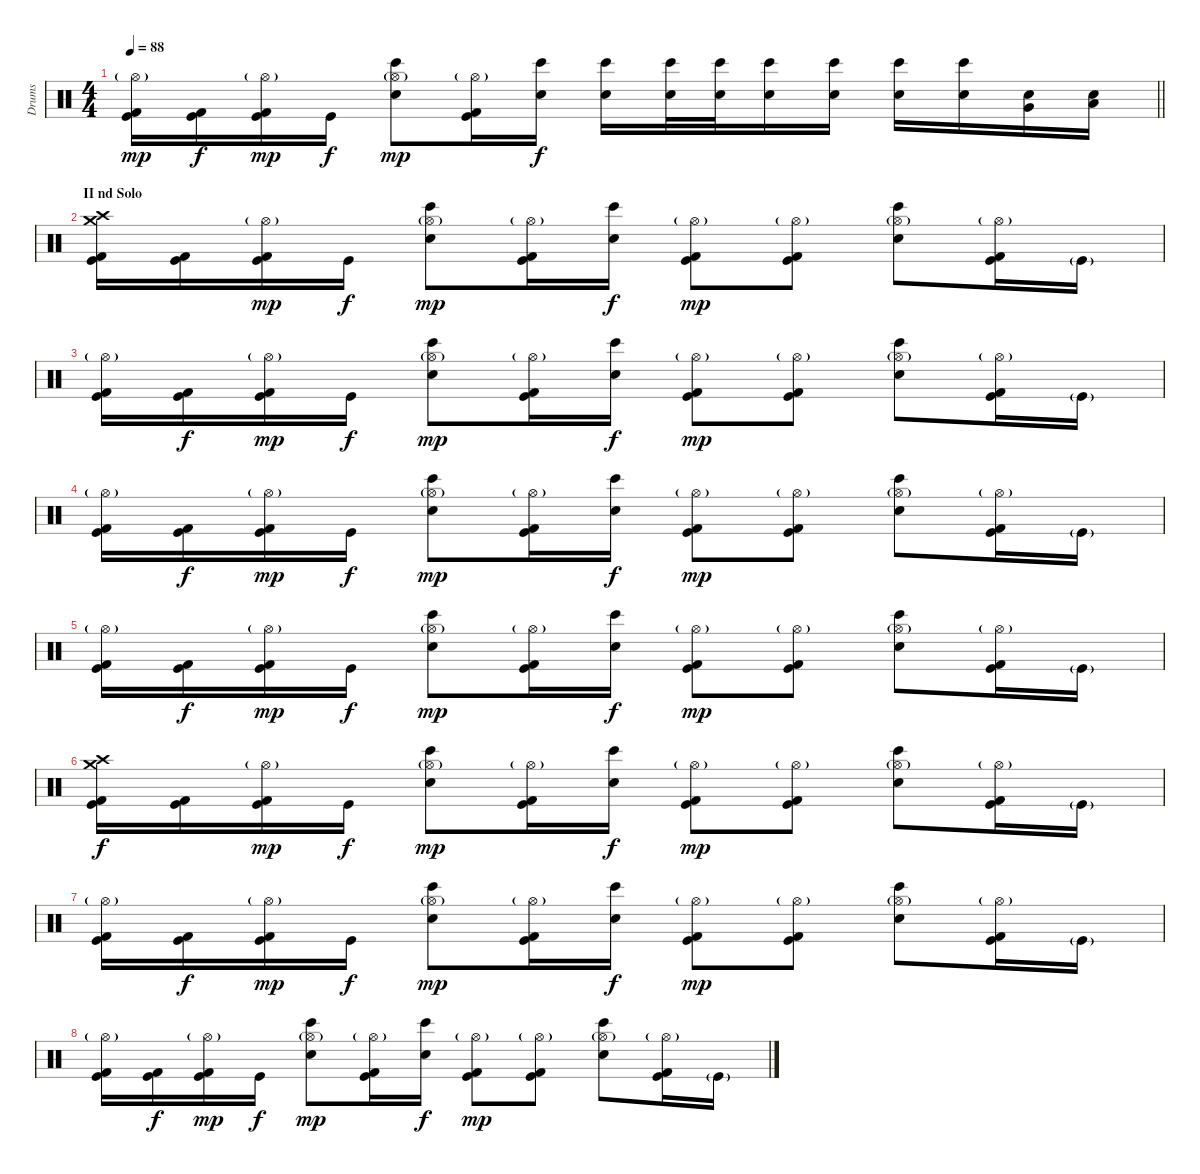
\track ("Drums" "Drums") {instrument percussion}
\staff {score}
\articulation defaults
\ts (4 4)
\tempo 88
\clef neutral
\barLineRight lightlight
\ks c
("Hi-Hat (open)"{g} "Kick (hit) 2" "Kick (hit)").16{dy mp} ("Kick (hit) 2" "Kick (hit)").16{dy f} ("Hi-Hat (open)"{g} "Kick (hit) 2" "Kick (hit)").16{dy mp} "Kick (hit)".16{dy f} ("Hi-Hat (open)"{g} "Bongo High (hit)" "Snare (hit) 2").8{dy mp} ("Hi-Hat (open)"{g} "Kick (hit) 2" "Kick (hit)").16 ("Bongo High (hit)" "Snare (hit) 2").16{dy f} ("Bongo High (hit)" "Snare (hit) 2").16 ("Bongo High (hit)" "Snare (hit) 2").32 ("Bongo High (hit)" "Snare (hit) 2").32 ("Bongo High (hit)" "Snare (hit) 2").16 ("Bongo High (hit)" "Snare (hit) 2").16 ("Bongo High (hit)" "Snare (hit) 2").16 ("Bongo High (hit)" "Snare (hit) 2").16 ("Snare (hit) 2" "Very Low Tom (hit)").16 ("Snare (hit) 2" "Low Floor Tom (hit)").16 |
\section ("" "II nd Solo")
("Crash medium (hit)" "Crash high (hit)" "Kick (hit) 2" "Kick (hit)").16 ("Kick (hit) 2" "Kick (hit)").16 ("Hi-Hat (open)"{g} "Kick (hit) 2" "Kick (hit)").16{dy mp} "Kick (hit)".16{dy f} ("Hi-Hat (open)"{g} "Bongo High (hit)" "Snare (hit) 2").8{dy mp} ("Hi-Hat (open)"{g} "Kick (hit) 2" "Kick (hit)").16 ("Bongo High (hit)" "Snare (hit) 2").16{dy f} ("Hi-Hat (open)"{g} "Kick (hit) 2" "Kick (hit)").8{dy mp} ("Hi-Hat (open)"{g} "Kick (hit) 2" "Kick (hit)").8 ("Hi-Hat (open)"{g} "Bongo High (hit)" "Snare (hit) 2").8 ("Hi-Hat (open)"{g} "Kick (hit) 2" "Kick (hit)").16 "Kick (hit)"{g}.16 |
("Hi-Hat (open)"{g} "Kick (hit) 2" "Kick (hit)").16 ("Kick (hit) 2" "Kick (hit)").16{dy f} ("Hi-Hat (open)"{g} "Kick (hit) 2" "Kick (hit)").16{dy mp} "Kick (hit)".16{dy f} ("Hi-Hat (open)"{g} "Bongo High (hit)" "Snare (hit) 2").8{dy mp} ("Hi-Hat (open)"{g} "Kick (hit) 2" "Kick (hit)").16 ("Bongo High (hit)" "Snare (hit) 2").16{dy f} ("Hi-Hat (open)"{g} "Kick (hit) 2" "Kick (hit)").8{dy mp} ("Hi-Hat (open)"{g} "Kick (hit) 2" "Kick (hit)").8 ("Hi-Hat (open)"{g} "Bongo High (hit)" "Snare (hit) 2").8 ("Hi-Hat (open)"{g} "Kick (hit) 2" "Kick (hit)").16 "Kick (hit)"{g}.16 |
("Hi-Hat (open)"{g} "Kick (hit) 2" "Kick (hit)").16 ("Kick (hit) 2" "Kick (hit)").16{dy f} ("Hi-Hat (open)"{g} "Kick (hit) 2" "Kick (hit)").16{dy mp} "Kick (hit)".16{dy f} ("Hi-Hat (open)"{g} "Bongo High (hit)" "Snare (hit) 2").8{dy mp} ("Hi-Hat (open)"{g} "Kick (hit) 2" "Kick (hit)").16 ("Bongo High (hit)" "Snare (hit) 2").16{dy f} ("Hi-Hat (open)"{g} "Kick (hit) 2" "Kick (hit)").8{dy mp} ("Hi-Hat (open)"{g} "Kick (hit) 2" "Kick (hit)").8 ("Hi-Hat (open)"{g} "Bongo High (hit)" "Snare (hit) 2").8 ("Hi-Hat (open)"{g} "Kick (hit) 2" "Kick (hit)").16 "Kick (hit)"{g}.16 |
("Hi-Hat (open)"{g} "Kick (hit) 2" "Kick (hit)").16 ("Kick (hit) 2" "Kick (hit)").16{dy f} ("Hi-Hat (open)"{g} "Kick (hit) 2" "Kick (hit)").16{dy mp} "Kick (hit)".16{dy f} ("Hi-Hat (open)"{g} "Bongo High (hit)" "Snare (hit) 2").8{dy mp} ("Hi-Hat (open)"{g} "Kick (hit) 2" "Kick (hit)").16 ("Bongo High (hit)" "Snare (hit) 2").16{dy f} ("Hi-Hat (open)"{g} "Kick (hit) 2" "Kick (hit)").8{dy mp} ("Hi-Hat (open)"{g} "Kick (hit) 2" "Kick (hit)").8 ("Hi-Hat (open)"{g} "Bongo High (hit)" "Snare (hit) 2").8 ("Hi-Hat (open)"{g} "Kick (hit) 2" "Kick (hit)").16 "Kick (hit)"{g}.16 |
("Crash medium (hit)" "Crash high (hit)" "Kick (hit) 2" "Kick (hit)").16{dy f} ("Kick (hit) 2" "Kick (hit)").16 ("Hi-Hat (open)"{g} "Kick (hit) 2" "Kick (hit)").16{dy mp} "Kick (hit)".16{dy f} ("Hi-Hat (open)"{g} "Bongo High (hit)" "Snare (hit) 2").8{dy mp} ("Hi-Hat (open)"{g} "Kick (hit) 2" "Kick (hit)").16 ("Bongo High (hit)" "Snare (hit) 2").16{dy f} ("Hi-Hat (open)"{g} "Kick (hit) 2" "Kick (hit)").8{dy mp} ("Hi-Hat (open)"{g} "Kick (hit) 2" "Kick (hit)").8 ("Hi-Hat (open)"{g} "Bongo High (hit)" "Snare (hit) 2").8 ("Hi-Hat (open)"{g} "Kick (hit) 2" "Kick (hit)").16 "Kick (hit)"{g}.16 |
("Hi-Hat (open)"{g} "Kick (hit) 2" "Kick (hit)").16 ("Kick (hit) 2" "Kick (hit)").16{dy f} ("Hi-Hat (open)"{g} "Kick (hit) 2" "Kick (hit)").16{dy mp} "Kick (hit)".16{dy f} ("Hi-Hat (open)"{g} "Bongo High (hit)" "Snare (hit) 2").8{dy mp} ("Hi-Hat (open)"{g} "Kick (hit) 2" "Kick (hit)").16 ("Bongo High (hit)" "Snare (hit) 2").16{dy f} ("Hi-Hat (open)"{g} "Kick (hit) 2" "Kick (hit)").8{dy mp} ("Hi-Hat (open)"{g} "Kick (hit) 2" "Kick (hit)").8 ("Hi-Hat (open)"{g} "Bongo High (hit)" "Snare (hit) 2").8 ("Hi-Hat (open)"{g} "Kick (hit) 2" "Kick (hit)").16 "Kick (hit)"{g}.16 |
("Hi-Hat (open)"{g} "Kick (hit) 2" "Kick (hit)").16 ("Kick (hit) 2" "Kick (hit)").16{dy f} ("Hi-Hat (open)"{g} "Kick (hit) 2" "Kick (hit)").16{dy mp} "Kick (hit)".16{dy f} ("Hi-Hat (open)"{g} "Bongo High (hit)" "Snare (hit) 2").8{dy mp} ("Hi-Hat (open)"{g} "Kick (hit) 2" "Kick (hit)").16 ("Bongo High (hit)" "Snare (hit) 2").16{dy f} ("Hi-Hat (open)"{g} "Kick (hit) 2" "Kick (hit)").8{dy mp} ("Hi-Hat (open)"{g} "Kick (hit) 2" "Kick (hit)").8 ("Hi-Hat (open)"{g} "Bongo High (hit)" "Snare (hit) 2").8 ("Hi-Hat (open)"{g} "Kick (hit) 2" "Kick (hit)").16 "Kick (hit)"{g}.16
